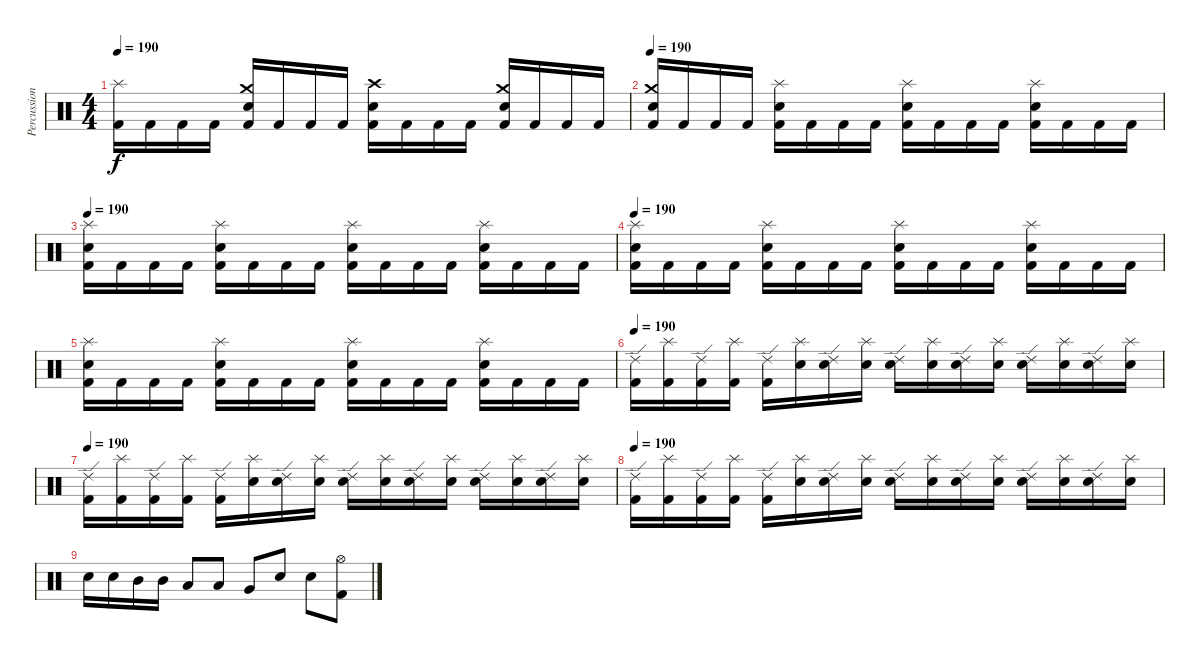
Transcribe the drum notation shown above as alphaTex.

\track ("Percussion" "Percussion") {instrument percussion}
\staff {score}
\articulation defaults
\ts (4 4)
\tempo 190
\clef neutral
\ks c
("Splash (hit)" "Kick (hit) 2").16{dy f} "Kick (hit) 2".16 "Kick (hit) 2".16 "Kick (hit) 2".16 ("Crash medium (hit)" "Kick (hit) 2" "Electric Snare (hit)").16 "Kick (hit) 2".16 "Kick (hit) 2".16 "Kick (hit) 2".16 ("Crash high (hit)" "Kick (hit) 2" "Electric Snare (hit)").16 "Kick (hit) 2".16 "Kick (hit) 2".16 "Kick (hit) 2".16 ("Crash medium (hit)" "Kick (hit) 2" "Electric Snare (hit)").16 "Kick (hit) 2".16 "Kick (hit) 2".16 "Kick (hit) 2".16 |
\tempo 190
("Crash medium (hit)" "Kick (hit) 2" "Electric Snare (hit)").16 "Kick (hit) 2".16 "Kick (hit) 2".16 "Kick (hit) 2".16 ("Splash (hit)" "Kick (hit) 2" "Electric Snare (hit)").16 "Kick (hit) 2".16 "Kick (hit) 2".16 "Kick (hit) 2".16 ("Splash (hit)" "Kick (hit) 2" "Electric Snare (hit)").16 "Kick (hit) 2".16 "Kick (hit) 2".16 "Kick (hit) 2".16 ("Splash (hit)" "Kick (hit) 2" "Electric Snare (hit)").16 "Kick (hit) 2".16 "Kick (hit) 2".16 "Kick (hit) 2".16 |
\tempo 190
("Splash (hit)" "Kick (hit) 2" "Electric Snare (hit)").16 "Kick (hit) 2".16 "Kick (hit) 2".16 "Kick (hit) 2".16 ("Splash (hit)" "Kick (hit) 2" "Electric Snare (hit)").16 "Kick (hit) 2".16 "Kick (hit) 2".16 "Kick (hit) 2".16 ("Splash (hit)" "Kick (hit) 2" "Electric Snare (hit)").16 "Kick (hit) 2".16 "Kick (hit) 2".16 "Kick (hit) 2".16 ("Splash (hit)" "Kick (hit) 2" "Electric Snare (hit)").16 "Kick (hit) 2".16 "Kick (hit) 2".16 "Kick (hit) 2".16 |
\tempo 190
("Splash (hit)" "Kick (hit) 2" "Electric Snare (hit)").16 "Kick (hit) 2".16 "Kick (hit) 2".16 "Kick (hit) 2".16 ("Splash (hit)" "Kick (hit) 2" "Electric Snare (hit)").16 "Kick (hit) 2".16 "Kick (hit) 2".16 "Kick (hit) 2".16 ("Splash (hit)" "Kick (hit) 2" "Electric Snare (hit)").16 "Kick (hit) 2".16 "Kick (hit) 2".16 "Kick (hit) 2".16 ("Splash (hit)" "Kick (hit) 2" "Electric Snare (hit)").16 "Kick (hit) 2".16 "Kick (hit) 2".16 "Kick (hit) 2".16 |
("Splash (hit)" "Kick (hit) 2" "Electric Snare (hit)").16 "Kick (hit) 2".16 "Kick (hit) 2".16 "Kick (hit) 2".16 ("Splash (hit)" "Kick (hit) 2" "Electric Snare (hit)").16 "Kick (hit) 2".16 "Kick (hit) 2".16 "Kick (hit) 2".16 ("Splash (hit)" "Kick (hit) 2" "Electric Snare (hit)").16 "Kick (hit) 2".16 "Kick (hit) 2".16 "Kick (hit) 2".16 ("Splash (hit)" "Kick (hit) 2" "Electric Snare (hit)").16 "Kick (hit) 2".16 "Kick (hit) 2".16 "Kick (hit) 2".16 |
\tempo 190
("Ride (edge) 2" "Kick (hit) 2").16 ("Splash (hit)" "Kick (hit) 2").16 ("Ride (edge) 2" "Kick (hit) 2").16 ("Splash (hit)" "Kick (hit) 2").16 ("Ride (edge) 2" "Kick (hit) 2").16 ("Splash (hit)" "Snare (hit)").16 ("Ride (edge) 2" "Snare (hit)").16 ("Splash (hit)" "Snare (hit)").16 ("Ride (edge) 2" "Electric Snare (hit)").16 ("Splash (hit)" "Snare (hit)").16 ("Ride (edge) 2" "Snare (hit)").16 ("Splash (hit)" "Snare (hit)").16 ("Ride (edge) 2" "Snare (hit)").16 ("Splash (hit)" "Snare (hit)").16 ("Ride (edge) 2" "Snare (hit)").16 ("Splash (hit)" "Snare (hit)").16 |
\tempo 190
("Ride (edge) 2" "Kick (hit) 2").16 ("Splash (hit)" "Kick (hit) 2").16 ("Ride (edge) 2" "Kick (hit) 2").16 ("Splash (hit)" "Kick (hit) 2").16 ("Ride (edge) 2" "Kick (hit) 2").16 ("Splash (hit)" "Snare (hit)").16 ("Ride (edge) 2" "Snare (hit)").16 ("Splash (hit)" "Snare (hit)").16 ("Ride (edge) 2" "Electric Snare (hit)").16 ("Splash (hit)" "Snare (hit)").16 ("Ride (edge) 2" "Snare (hit)").16 ("Splash (hit)" "Snare (hit)").16 ("Ride (edge) 2" "Snare (hit)").16 ("Splash (hit)" "Snare (hit)").16 ("Ride (edge) 2" "Snare (hit)").16 ("Splash (hit)" "Snare (hit)").16 |
\tempo 190
("Ride (edge) 2" "Kick (hit) 2").16 ("Splash (hit)" "Kick (hit) 2").16 ("Ride (edge) 2" "Kick (hit) 2").16 ("Splash (hit)" "Kick (hit) 2").16 ("Ride (edge) 2" "Kick (hit) 2").16 ("Splash (hit)" "Snare (hit)").16 ("Ride (edge) 2" "Snare (hit)").16 ("Splash (hit)" "Snare (hit)").16 ("Ride (edge) 2" "Electric Snare (hit)").16 ("Splash (hit)" "Snare (hit)").16 ("Ride (edge) 2" "Snare (hit)").16 ("Splash (hit)" "Snare (hit)").16 ("Ride (edge) 2" "Snare (hit)").16 ("Splash (hit)" "Snare (hit)").16 ("Ride (edge) 2" "Snare (hit)").16 ("Splash (hit)" "Snare (hit)").16 |
"Electric Snare (hit)".16 "Electric Snare (hit)".16 "Mid Tom (hit)".16 "Mid Tom (hit)".16 "Low Tom (hit)".8 "Low Tom (hit)".8 "Very Low Tom (hit)".8 "Electric Snare (hit)".8 "Electric Snare (hit)".8 ("Hi-Hat (open)" "Kick (hit) 2").8
